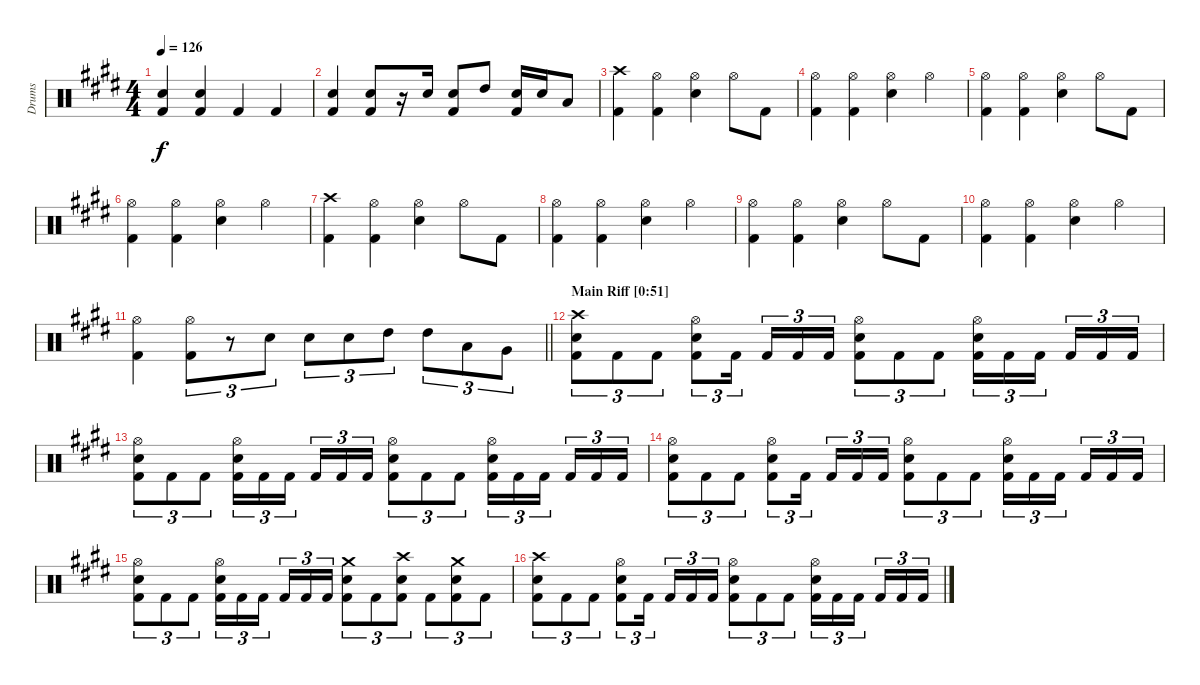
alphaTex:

\track ("Drums" "Drums") {instrument percussion}
\staff {score}
\articulation defaults
\ts (4 4)
\tempo 126
\clef neutral
\ks c#minor
("Snare (hit) 2" "Kick (hit) 2").4{dy f} ("Snare (hit) 2" "Kick (hit) 2").4 "Kick (hit) 2".4 "Kick (hit) 2".4 |
("Snare (hit) 2" "Kick (hit) 2").4 ("Snare (hit) 2" "Kick (hit) 2").8 r.16 "Snare (hit) 2".16 ("Snare (hit) 2" "Kick (hit) 2").8 "High Tom (hit)".8 ("Snare (hit) 2" "Kick (hit) 2").16 "Snare (hit) 2".16 "Low Tom (hit)".8 |
("Crash high (hit)" "Kick (hit) 2").4 ("Hi-Hat (open)" "Kick (hit) 2").4 ("Hi-Hat (open)" "Snare (hit) 2").4 "Hi-Hat (open)".8 "Kick (hit) 2".8 |
("Hi-Hat (open)" "Kick (hit) 2").4 ("Hi-Hat (open)" "Kick (hit) 2").4 ("Hi-Hat (open)" "Snare (hit) 2").4 "Hi-Hat (open)".4 |
("Hi-Hat (open)" "Kick (hit) 2").4 ("Hi-Hat (open)" "Kick (hit) 2").4 ("Hi-Hat (open)" "Snare (hit) 2").4 "Hi-Hat (open)".8 "Kick (hit) 2".8 |
("Hi-Hat (open)" "Kick (hit) 2").4 ("Hi-Hat (open)" "Kick (hit) 2").4 ("Hi-Hat (open)" "Snare (hit) 2").4 "Hi-Hat (open)".4 |
("Crash high (hit)" "Kick (hit) 2").4 ("Hi-Hat (open)" "Kick (hit) 2").4 ("Hi-Hat (open)" "Snare (hit) 2").4 "Hi-Hat (open)".8 "Kick (hit) 2".8 |
("Hi-Hat (open)" "Kick (hit) 2").4 ("Hi-Hat (open)" "Kick (hit) 2").4 ("Hi-Hat (open)" "Snare (hit) 2").4 "Hi-Hat (open)".4 |
("Hi-Hat (open)" "Kick (hit) 2").4 ("Hi-Hat (open)" "Kick (hit) 2").4 ("Hi-Hat (open)" "Snare (hit) 2").4 "Hi-Hat (open)".8 "Kick (hit) 2".8 |
("Hi-Hat (open)" "Kick (hit) 2").4 ("Hi-Hat (open)" "Kick (hit) 2").4 ("Hi-Hat (open)" "Snare (hit) 2").4 "Hi-Hat (open)".4 |
\barLineRight lightlight
("Hi-Hat (open)" "Kick (hit) 2").4 ("Hi-Hat (open)" "Kick (hit) 2").8{tu (3 2)} r.8{tu (3 2)} "Snare (hit) 2".8{tu (3 2)} "Snare (hit) 2".8{tu (3 2)} "Snare (hit) 2".8{tu (3 2)} "High Tom (hit)".8{tu (3 2)} "High Tom (hit)".8{tu (3 2)} "Low Tom (hit)".8{tu (3 2)} "Very Low Tom (hit)".8{tu (3 2)} |
\section ("" "Main Riff [0:51]")
("Crash high (hit)" "Snare (hit) 2" "Kick (hit) 2").8{tu (3 2)} "Kick (hit) 2".8{tu (3 2)} "Kick (hit) 2".8{tu (3 2)} ("Hi-Hat (open)" "Snare (hit) 2" "Kick (hit) 2").8{tu (3 2)} "Kick (hit) 2".16{tu (3 2) beam splitsecondary} "Kick (hit) 2".16{tu (3 2)} "Kick (hit) 2".16{tu (3 2)} "Kick (hit) 2".16{tu (3 2)} ("Hi-Hat (open)" "Snare (hit) 2" "Kick (hit) 2").8{tu (3 2)} "Kick (hit) 2".8{tu (3 2)} "Kick (hit) 2".8{tu (3 2)} ("Hi-Hat (open)" "Snare (hit) 2" "Kick (hit) 2").16{tu (3 2)} "Kick (hit) 2".16{tu (3 2)} "Kick (hit) 2".16{tu (3 2) beam splitsecondary} "Kick (hit) 2".16{tu (3 2)} "Kick (hit) 2".16{tu (3 2)} "Kick (hit) 2".16{tu (3 2)} |
("Hi-Hat (open)" "Snare (hit) 2" "Kick (hit) 2").8{tu (3 2)} "Kick (hit) 2".8{tu (3 2)} "Kick (hit) 2".8{tu (3 2)} ("Hi-Hat (open)" "Snare (hit) 2" "Kick (hit) 2").16{tu (3 2)} "Kick (hit) 2".16{tu (3 2)} "Kick (hit) 2".16{tu (3 2) beam splitsecondary} "Kick (hit) 2".16{tu (3 2)} "Kick (hit) 2".16{tu (3 2)} "Kick (hit) 2".16{tu (3 2)} ("Hi-Hat (open)" "Snare (hit) 2" "Kick (hit) 2").8{tu (3 2)} "Kick (hit) 2".8{tu (3 2)} "Kick (hit) 2".8{tu (3 2)} ("Hi-Hat (open)" "Snare (hit) 2" "Kick (hit) 2").16{tu (3 2)} "Kick (hit) 2".16{tu (3 2)} "Kick (hit) 2".16{tu (3 2) beam splitsecondary} "Kick (hit) 2".16{tu (3 2)} "Kick (hit) 2".16{tu (3 2)} "Kick (hit) 2".16{tu (3 2)} |
("Hi-Hat (open)" "Snare (hit) 2" "Kick (hit) 2").8{tu (3 2)} "Kick (hit) 2".8{tu (3 2)} "Kick (hit) 2".8{tu (3 2)} ("Hi-Hat (open)" "Snare (hit) 2" "Kick (hit) 2").8{tu (3 2)} "Kick (hit) 2".16{tu (3 2) beam splitsecondary} "Kick (hit) 2".16{tu (3 2)} "Kick (hit) 2".16{tu (3 2)} "Kick (hit) 2".16{tu (3 2)} ("Hi-Hat (open)" "Snare (hit) 2" "Kick (hit) 2").8{tu (3 2)} "Kick (hit) 2".8{tu (3 2)} "Kick (hit) 2".8{tu (3 2)} ("Hi-Hat (open)" "Snare (hit) 2" "Kick (hit) 2").16{tu (3 2)} "Kick (hit) 2".16{tu (3 2)} "Kick (hit) 2".16{tu (3 2) beam splitsecondary} "Kick (hit) 2".16{tu (3 2)} "Kick (hit) 2".16{tu (3 2)} "Kick (hit) 2".16{tu (3 2)} |
("Hi-Hat (open)" "Snare (hit) 2" "Kick (hit) 2").8{tu (3 2)} "Kick (hit) 2".8{tu (3 2)} "Kick (hit) 2".8{tu (3 2)} ("Hi-Hat (open)" "Snare (hit) 2" "Kick (hit) 2").16{tu (3 2)} "Kick (hit) 2".16{tu (3 2)} "Kick (hit) 2".16{tu (3 2) beam splitsecondary} "Kick (hit) 2".16{tu (3 2)} "Kick (hit) 2".16{tu (3 2)} "Kick (hit) 2".16{tu (3 2)} ("Crash medium (hit)" "Snare (hit) 2" "Kick (hit) 2").8{tu (3 2)} "Kick (hit) 2".8{tu (3 2)} ("Crash high (hit)" "Snare (hit) 2" "Kick (hit) 2").8{tu (3 2)} "Kick (hit) 2".8{tu (3 2)} ("Crash medium (hit)" "Snare (hit) 2" "Kick (hit) 2").8{tu (3 2)} "Kick (hit) 2".8{tu (3 2)} |
("Crash high (hit)" "Snare (hit) 2" "Kick (hit) 2").8{tu (3 2)} "Kick (hit) 2".8{tu (3 2)} "Kick (hit) 2".8{tu (3 2)} ("Hi-Hat (open)" "Snare (hit) 2" "Kick (hit) 2").8{tu (3 2)} "Kick (hit) 2".16{tu (3 2) beam splitsecondary} "Kick (hit) 2".16{tu (3 2)} "Kick (hit) 2".16{tu (3 2)} "Kick (hit) 2".16{tu (3 2)} ("Hi-Hat (open)" "Snare (hit) 2" "Kick (hit) 2").8{tu (3 2)} "Kick (hit) 2".8{tu (3 2)} "Kick (hit) 2".8{tu (3 2)} ("Hi-Hat (open)" "Snare (hit) 2" "Kick (hit) 2").16{tu (3 2)} "Kick (hit) 2".16{tu (3 2)} "Kick (hit) 2".16{tu (3 2) beam splitsecondary} "Kick (hit) 2".16{tu (3 2)} "Kick (hit) 2".16{tu (3 2)} "Kick (hit) 2".16{tu (3 2)}
